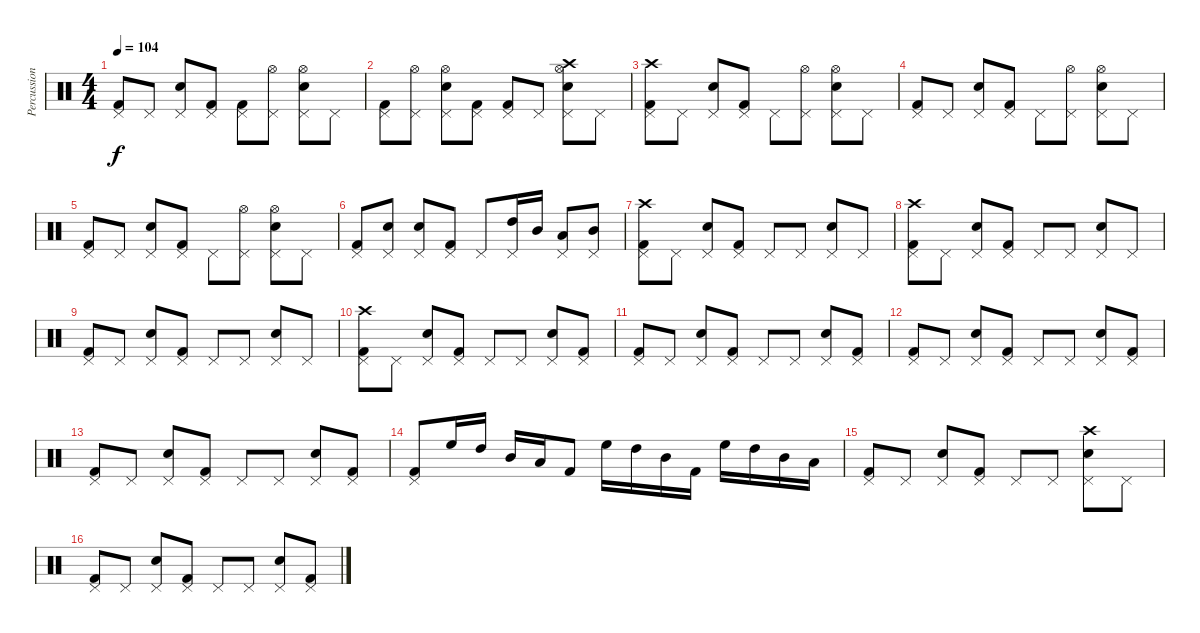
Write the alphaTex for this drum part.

\track ("Percussion" "Percussion") {instrument percussion}
\staff {score}
\articulation defaults
\ts (4 4)
\tempo 104
\clef neutral
\ks c
("Pedal Hi-Hat (hit)" "Kick (hit) 2").8{dy f} "Pedal Hi-Hat (hit)".8 ("Pedal Hi-Hat (hit)" "Electric Snare (hit)").8 ("Pedal Hi-Hat (hit)" "Kick (hit) 2").8 ("Pedal Hi-Hat (hit)" "Kick (hit) 2").8 ("Pedal Hi-Hat (hit)" "Hi-Hat (open)").8 ("Pedal Hi-Hat (hit)" "Electric Snare (hit)" "Hi-Hat (open)").8 "Pedal Hi-Hat (hit)".8 |
("Pedal Hi-Hat (hit)" "Kick (hit) 2").8 ("Pedal Hi-Hat (hit)" "Hi-Hat (open)").8 ("Pedal Hi-Hat (hit)" "Electric Snare (hit)" "Hi-Hat (open)").8 ("Pedal Hi-Hat (hit)" "Kick (hit) 2").8 ("Pedal Hi-Hat (hit)" "Kick (hit) 2").8 "Pedal Hi-Hat (hit)".8 ("Pedal Hi-Hat (hit)" "Electric Snare (hit)" "Hi-Hat (open)" "Crash high (hit)").8 "Pedal Hi-Hat (hit)".8 |
("Pedal Hi-Hat (hit)" "Kick (hit) 2" "Crash high (hit)").8 "Pedal Hi-Hat (hit)".8 ("Pedal Hi-Hat (hit)" "Electric Snare (hit)").8 ("Pedal Hi-Hat (hit)" "Kick (hit) 2").8 "Pedal Hi-Hat (hit)".8 ("Pedal Hi-Hat (hit)" "Hi-Hat (open)").8 ("Pedal Hi-Hat (hit)" "Electric Snare (hit)" "Hi-Hat (open)").8 "Pedal Hi-Hat (hit)".8 |
("Pedal Hi-Hat (hit)" "Kick (hit) 2").8 "Pedal Hi-Hat (hit)".8 ("Pedal Hi-Hat (hit)" "Electric Snare (hit)").8 ("Pedal Hi-Hat (hit)" "Kick (hit) 2").8 "Pedal Hi-Hat (hit)".8 ("Pedal Hi-Hat (hit)" "Hi-Hat (open)").8 ("Pedal Hi-Hat (hit)" "Electric Snare (hit)" "Hi-Hat (open)").8 "Pedal Hi-Hat (hit)".8 |
("Pedal Hi-Hat (hit)" "Kick (hit) 2").8 "Pedal Hi-Hat (hit)".8 ("Pedal Hi-Hat (hit)" "Electric Snare (hit)").8 ("Pedal Hi-Hat (hit)" "Kick (hit) 2").8 "Pedal Hi-Hat (hit)".8 ("Pedal Hi-Hat (hit)" "Hi-Hat (open)").8 ("Pedal Hi-Hat (hit)" "Electric Snare (hit)" "Hi-Hat (open)").8 "Pedal Hi-Hat (hit)".8 |
("Pedal Hi-Hat (hit)" "Kick (hit) 2").8 ("Pedal Hi-Hat (hit)" "Electric Snare (hit)").8 ("Pedal Hi-Hat (hit)" "Electric Snare (hit)").8 ("Pedal Hi-Hat (hit)" "Kick (hit) 2").8 "Pedal Hi-Hat (hit)".8 ("Pedal Hi-Hat (hit)" "High Tom (hit)").16 "Mid Tom (hit)".16 ("Pedal Hi-Hat (hit)" "Low Tom (hit)").8 ("Pedal Hi-Hat (hit)" "Mid Tom (hit)").8 |
("Pedal Hi-Hat (hit)" "Kick (hit) 2" "Crash high (hit)").8 "Pedal Hi-Hat (hit)".8 ("Pedal Hi-Hat (hit)" "Electric Snare (hit)").8 ("Pedal Hi-Hat (hit)" "Kick (hit) 2").8 "Pedal Hi-Hat (hit)".8 "Pedal Hi-Hat (hit)".8 ("Pedal Hi-Hat (hit)" "Electric Snare (hit)").8 "Pedal Hi-Hat (hit)".8 |
("Pedal Hi-Hat (hit)" "Kick (hit) 2" "Crash high (hit)").8 "Pedal Hi-Hat (hit)".8 ("Pedal Hi-Hat (hit)" "Electric Snare (hit)").8 ("Pedal Hi-Hat (hit)" "Kick (hit) 2").8 "Pedal Hi-Hat (hit)".8 "Pedal Hi-Hat (hit)".8 ("Pedal Hi-Hat (hit)" "Electric Snare (hit)").8 "Pedal Hi-Hat (hit)".8 |
("Pedal Hi-Hat (hit)" "Kick (hit) 2").8 "Pedal Hi-Hat (hit)".8 ("Pedal Hi-Hat (hit)" "Electric Snare (hit)").8 ("Pedal Hi-Hat (hit)" "Kick (hit) 2").8 "Pedal Hi-Hat (hit)".8 "Pedal Hi-Hat (hit)".8 ("Pedal Hi-Hat (hit)" "Electric Snare (hit)").8 "Pedal Hi-Hat (hit)".8 |
("Pedal Hi-Hat (hit)" "Kick (hit) 2" "Crash high (hit)").8 "Pedal Hi-Hat (hit)".8 ("Pedal Hi-Hat (hit)" "Electric Snare (hit)").8 ("Pedal Hi-Hat (hit)" "Kick (hit) 2").8 "Pedal Hi-Hat (hit)".8 "Pedal Hi-Hat (hit)".8 ("Pedal Hi-Hat (hit)" "Electric Snare (hit)").8 ("Pedal Hi-Hat (hit)" "Kick (hit) 2").8 |
("Pedal Hi-Hat (hit)" "Kick (hit) 2").8 "Pedal Hi-Hat (hit)".8 ("Pedal Hi-Hat (hit)" "Electric Snare (hit)").8 ("Pedal Hi-Hat (hit)" "Kick (hit) 2").8 "Pedal Hi-Hat (hit)".8 "Pedal Hi-Hat (hit)".8 ("Pedal Hi-Hat (hit)" "Electric Snare (hit)").8 ("Pedal Hi-Hat (hit)" "Kick (hit) 2").8 |
("Pedal Hi-Hat (hit)" "Kick (hit) 2").8 "Pedal Hi-Hat (hit)".8 ("Pedal Hi-Hat (hit)" "Electric Snare (hit)").8 ("Pedal Hi-Hat (hit)" "Kick (hit) 2").8 "Pedal Hi-Hat (hit)".8 "Pedal Hi-Hat (hit)".8 ("Pedal Hi-Hat (hit)" "Electric Snare (hit)").8 ("Pedal Hi-Hat (hit)" "Kick (hit) 2").8 |
("Pedal Hi-Hat (hit)" "Kick (hit) 2").8 "Pedal Hi-Hat (hit)".8 ("Pedal Hi-Hat (hit)" "Electric Snare (hit)").8 ("Pedal Hi-Hat (hit)" "Kick (hit) 2").8 "Pedal Hi-Hat (hit)".8 "Pedal Hi-Hat (hit)".8 ("Pedal Hi-Hat (hit)" "Electric Snare (hit)").8 ("Pedal Hi-Hat (hit)" "Kick (hit) 2").8 |
("Pedal Hi-Hat (hit)" "Kick (hit) 2").8 "High Floor Tom (hit)".16 "High Tom (hit)".16 "Mid Tom (hit)".16 "Low Tom (hit)".16 "Kick (hit) 2".8 "High Floor Tom (hit)".16 "High Tom (hit)".16 "Mid Tom (hit)".16 "Kick (hit) 2".16 "High Floor Tom (hit)".16 "High Tom (hit)".16 "Mid Tom (hit)".16 "Low Tom (hit)".16 |
("Pedal Hi-Hat (hit)" "Kick (hit) 2").8 "Pedal Hi-Hat (hit)".8 ("Pedal Hi-Hat (hit)" "Electric Snare (hit)").8 ("Pedal Hi-Hat (hit)" "Kick (hit) 2").8 "Pedal Hi-Hat (hit)".8 "Pedal Hi-Hat (hit)".8 ("Pedal Hi-Hat (hit)" "Electric Snare (hit)" "Crash high (hit)").8 "Pedal Hi-Hat (hit)".8 |
("Pedal Hi-Hat (hit)" "Kick (hit) 2").8 "Pedal Hi-Hat (hit)".8 ("Pedal Hi-Hat (hit)" "Electric Snare (hit)").8 ("Pedal Hi-Hat (hit)" "Kick (hit) 2").8 "Pedal Hi-Hat (hit)".8 "Pedal Hi-Hat (hit)".8 ("Pedal Hi-Hat (hit)" "Electric Snare (hit)").8 ("Pedal Hi-Hat (hit)" "Kick (hit) 2").8
